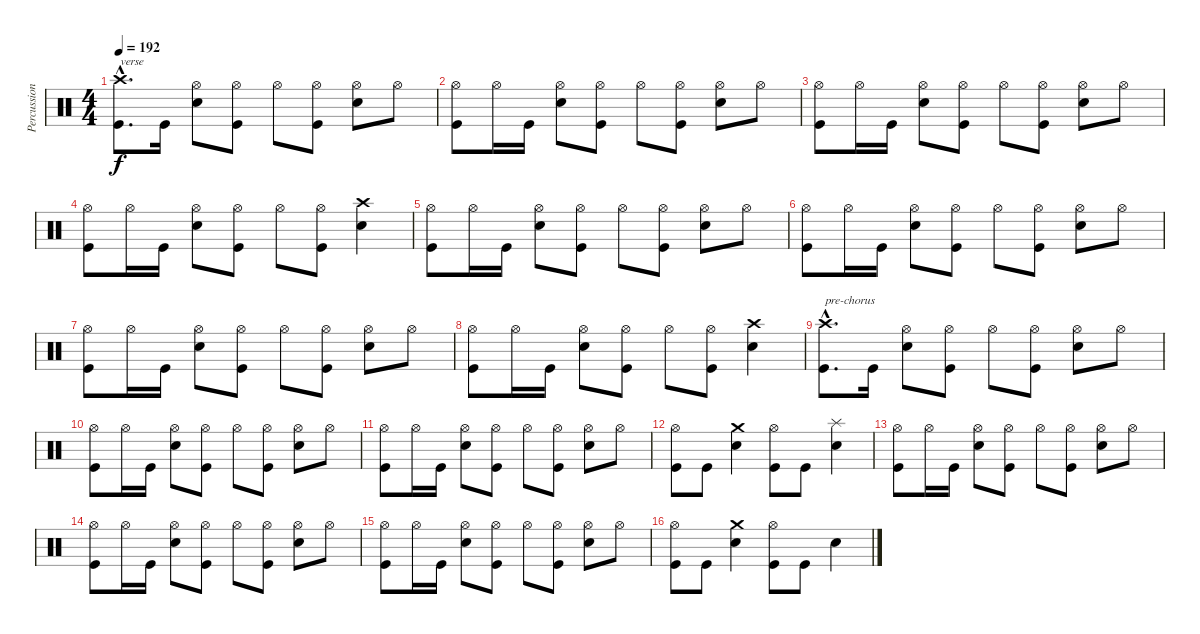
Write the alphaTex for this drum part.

\track ("Percussions" "Percussion") {instrument percussion}
\staff {score}
\articulation defaults
\ts (4 4)
\tempo 192
\clef neutral
\ks c
("Kick (hit)"{hac} "Crash high (hit)"{hac}).8{d txt "verse" dy f} "Kick (hit)".16 ("Electric Snare (hit)" "Hi-Hat (open)").8 ("Kick (hit)" "Hi-Hat (open)").8 "Hi-Hat (open)".8 ("Kick (hit)" "Hi-Hat (open)").8 ("Electric Snare (hit)" "Hi-Hat (open)").8 "Hi-Hat (open)".8 |
("Kick (hit)" "Hi-Hat (open)").8 "Hi-Hat (open)".16 "Kick (hit)".16 ("Electric Snare (hit)" "Hi-Hat (open)").8 ("Kick (hit)" "Hi-Hat (open)").8 "Hi-Hat (open)".8 ("Kick (hit)" "Hi-Hat (open)").8 ("Electric Snare (hit)" "Hi-Hat (open)").8 "Hi-Hat (open)".8 |
("Kick (hit)" "Hi-Hat (open)").8 "Hi-Hat (open)".16 "Kick (hit)".16 ("Electric Snare (hit)" "Hi-Hat (open)").8 ("Kick (hit)" "Hi-Hat (open)").8 "Hi-Hat (open)".8 ("Kick (hit)" "Hi-Hat (open)").8 ("Electric Snare (hit)" "Hi-Hat (open)").8 "Hi-Hat (open)".8 |
("Kick (hit)" "Hi-Hat (open)").8 "Hi-Hat (open)".16 "Kick (hit)".16 ("Electric Snare (hit)" "Hi-Hat (open)").8 ("Kick (hit)" "Hi-Hat (open)").8 "Hi-Hat (open)".8 ("Kick (hit)" "Hi-Hat (open)").8 ("Electric Snare (hit)" "Crash high (hit)").4 |
("Kick (hit)" "Hi-Hat (open)").8 "Hi-Hat (open)".16 "Kick (hit)".16 ("Electric Snare (hit)" "Hi-Hat (open)").8 ("Kick (hit)" "Hi-Hat (open)").8 "Hi-Hat (open)".8 ("Kick (hit)" "Hi-Hat (open)").8 ("Electric Snare (hit)" "Hi-Hat (open)").8 "Hi-Hat (open)".8 |
("Kick (hit)" "Hi-Hat (open)").8 "Hi-Hat (open)".16 "Kick (hit)".16 ("Electric Snare (hit)" "Hi-Hat (open)").8 ("Kick (hit)" "Hi-Hat (open)").8 "Hi-Hat (open)".8 ("Kick (hit)" "Hi-Hat (open)").8 ("Electric Snare (hit)" "Hi-Hat (open)").8 "Hi-Hat (open)".8 |
("Kick (hit)" "Hi-Hat (open)").8 "Hi-Hat (open)".16 "Kick (hit)".16 ("Electric Snare (hit)" "Hi-Hat (open)").8 ("Kick (hit)" "Hi-Hat (open)").8 "Hi-Hat (open)".8 ("Kick (hit)" "Hi-Hat (open)").8 ("Electric Snare (hit)" "Hi-Hat (open)").8 "Hi-Hat (open)".8 |
("Kick (hit)" "Hi-Hat (open)").8 "Hi-Hat (open)".16 "Kick (hit)".16 ("Electric Snare (hit)" "Hi-Hat (open)").8 ("Kick (hit)" "Hi-Hat (open)").8 "Hi-Hat (open)".8 ("Kick (hit)" "Hi-Hat (open)").8 ("Electric Snare (hit)" "Crash high (hit)").4 |
("Kick (hit)"{hac} "Crash high (hit)"{hac}).8{d txt "pre-chorus"} "Kick (hit)".16 ("Electric Snare (hit)" "Hi-Hat (open)").8 ("Kick (hit)" "Hi-Hat (open)").8 "Hi-Hat (open)".8 ("Kick (hit)" "Hi-Hat (open)").8 ("Electric Snare (hit)" "Hi-Hat (open)").8 "Hi-Hat (open)".8 |
("Kick (hit)" "Hi-Hat (open)").8 "Hi-Hat (open)".16 "Kick (hit)".16 ("Electric Snare (hit)" "Hi-Hat (open)").8 ("Kick (hit)" "Hi-Hat (open)").8 "Hi-Hat (open)".8 ("Kick (hit)" "Hi-Hat (open)").8 ("Electric Snare (hit)" "Hi-Hat (open)").8 "Hi-Hat (open)".8 |
("Kick (hit)" "Hi-Hat (open)").8 "Hi-Hat (open)".16 "Kick (hit)".16 ("Electric Snare (hit)" "Hi-Hat (open)").8 ("Kick (hit)" "Hi-Hat (open)").8 "Hi-Hat (open)".8 ("Kick (hit)" "Hi-Hat (open)").8 ("Electric Snare (hit)" "Hi-Hat (open)").8 "Hi-Hat (open)".8 |
("Kick (hit)" "Hi-Hat (open)").8 "Kick (hit)".8 ("Electric Snare (hit)" "Crash medium (hit)").4 ("Kick (hit)" "Hi-Hat (open)").8 "Kick (hit)".8 ("Electric Snare (hit)" "Splash (hit)").4 |
("Kick (hit)" "Hi-Hat (open)").8 "Hi-Hat (open)".16 "Kick (hit)".16 ("Electric Snare (hit)" "Hi-Hat (open)").8 ("Kick (hit)" "Hi-Hat (open)").8 "Hi-Hat (open)".8 ("Kick (hit)" "Hi-Hat (open)").8 ("Electric Snare (hit)" "Hi-Hat (open)").8 "Hi-Hat (open)".8 |
("Kick (hit)" "Hi-Hat (open)").8 "Hi-Hat (open)".16 "Kick (hit)".16 ("Electric Snare (hit)" "Hi-Hat (open)").8 ("Kick (hit)" "Hi-Hat (open)").8 "Hi-Hat (open)".8 ("Kick (hit)" "Hi-Hat (open)").8 ("Electric Snare (hit)" "Hi-Hat (open)").8 "Hi-Hat (open)".8 |
("Kick (hit)" "Hi-Hat (open)").8 "Hi-Hat (open)".16 "Kick (hit)".16 ("Electric Snare (hit)" "Hi-Hat (open)").8 ("Kick (hit)" "Hi-Hat (open)").8 "Hi-Hat (open)".8 ("Kick (hit)" "Hi-Hat (open)").8 ("Electric Snare (hit)" "Hi-Hat (open)").8 "Hi-Hat (open)".8 |
("Kick (hit)" "Hi-Hat (open)").8 "Kick (hit)".8 ("Electric Snare (hit)" "Crash medium (hit)").4 ("Kick (hit)" "Hi-Hat (open)").8 "Kick (hit)".8 "Electric Snare (hit)".4
